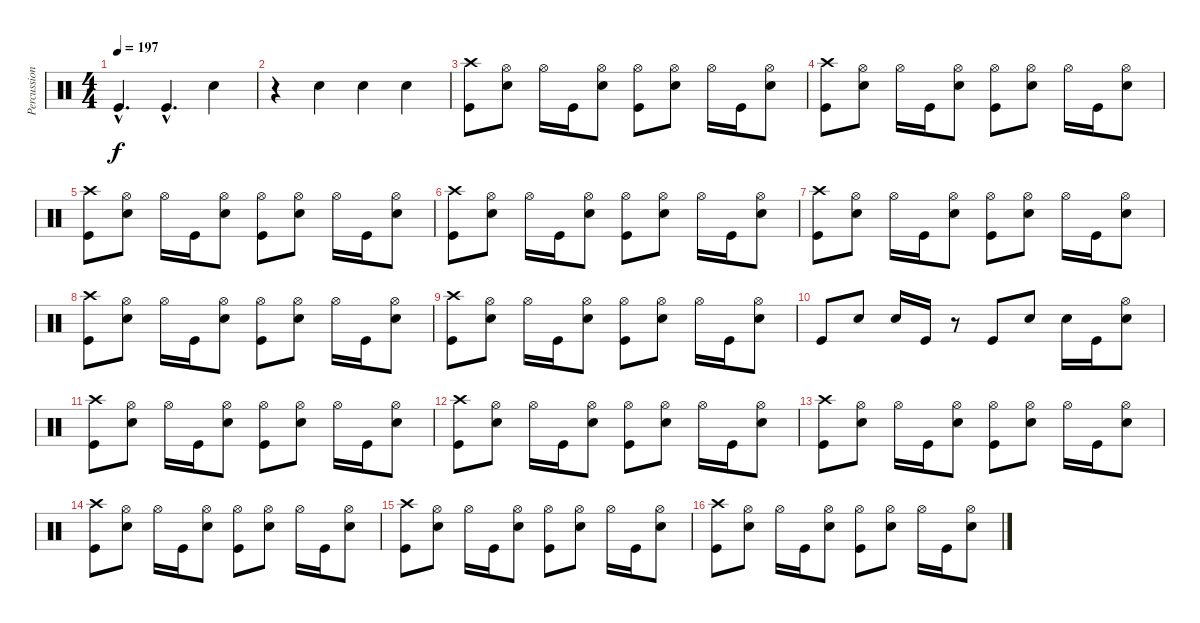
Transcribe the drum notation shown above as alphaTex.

\track ("Percussion" "Percussion") {instrument percussion}
\staff {score}
\articulation defaults
\ts (4 4)
\tempo 197
\clef neutral
\ks c "Kick (hit)"{hac}.4{d dy f} "Kick (hit)"{hac}.4{d} "Snare (hit) 2".4
|
r.4 "Snare (hit) 2".4 "Snare (hit) 2".4 "Snare (hit) 2".4 |
("Crash high (hit)" "Kick (hit)").8 ("Hi-Hat (open)" "Snare (hit) 2").8 "Hi-Hat (open)".16 "Kick (hit)".16 ("Hi-Hat (open)" "Snare (hit) 2").8 ("Hi-Hat (open)" "Kick (hit)").8 ("Hi-Hat (open)" "Snare (hit) 2").8 "Hi-Hat (open)".16 "Kick (hit)".16 ("Hi-Hat (open)" "Snare (hit) 2").8 |
("Crash high (hit)" "Kick (hit)").8 ("Hi-Hat (open)" "Snare (hit) 2").8 "Hi-Hat (open)".16 "Kick (hit)".16 ("Hi-Hat (open)" "Snare (hit) 2").8 ("Hi-Hat (open)" "Kick (hit)").8 ("Hi-Hat (open)" "Snare (hit) 2").8 "Hi-Hat (open)".16 "Kick (hit)".16 ("Hi-Hat (open)" "Snare (hit) 2").8 |
("Crash high (hit)" "Kick (hit)").8 ("Hi-Hat (open)" "Snare (hit) 2").8 "Hi-Hat (open)".16 "Kick (hit)".16 ("Hi-Hat (open)" "Snare (hit) 2").8 ("Hi-Hat (open)" "Kick (hit)").8 ("Hi-Hat (open)" "Snare (hit) 2").8 "Hi-Hat (open)".16 "Kick (hit)".16 ("Hi-Hat (open)" "Snare (hit) 2").8 |
("Crash high (hit)" "Kick (hit)").8 ("Hi-Hat (open)" "Snare (hit) 2").8 "Hi-Hat (open)".16 "Kick (hit)".16 ("Hi-Hat (open)" "Snare (hit) 2").8 ("Hi-Hat (open)" "Kick (hit)").8 ("Hi-Hat (open)" "Snare (hit) 2").8 "Hi-Hat (open)".16 "Kick (hit)".16 ("Hi-Hat (open)" "Snare (hit) 2").8 |
("Crash high (hit)" "Kick (hit)").8 ("Hi-Hat (open)" "Snare (hit) 2").8 "Hi-Hat (open)".16 "Kick (hit)".16 ("Hi-Hat (open)" "Snare (hit) 2").8 ("Hi-Hat (open)" "Kick (hit)").8 ("Hi-Hat (open)" "Snare (hit) 2").8 "Hi-Hat (open)".16 "Kick (hit)".16 ("Hi-Hat (open)" "Snare (hit) 2").8 |
("Crash high (hit)" "Kick (hit)").8 ("Hi-Hat (open)" "Snare (hit) 2").8 "Hi-Hat (open)".16 "Kick (hit)".16 ("Hi-Hat (open)" "Snare (hit) 2").8 ("Hi-Hat (open)" "Kick (hit)").8 ("Hi-Hat (open)" "Snare (hit) 2").8 "Hi-Hat (open)".16 "Kick (hit)".16 ("Hi-Hat (open)" "Snare (hit) 2").8 |
("Crash high (hit)" "Kick (hit)").8 ("Hi-Hat (open)" "Snare (hit) 2").8 "Hi-Hat (open)".16 "Kick (hit)".16 ("Hi-Hat (open)" "Snare (hit) 2").8 ("Hi-Hat (open)" "Kick (hit)").8 ("Hi-Hat (open)" "Snare (hit) 2").8 "Hi-Hat (open)".16 "Kick (hit)".16 ("Hi-Hat (open)" "Snare (hit) 2").8 |
"Kick (hit)".8 "Snare (hit) 2".8 "Snare (hit) 2".16 "Kick (hit)".16 r.8 "Kick (hit)".8 "Snare (hit) 2".8 "Snare (hit) 2".16 "Kick (hit)".16 ("Hi-Hat (open)" "Snare (hit) 2").8 |
("Crash high (hit)" "Kick (hit)").8 ("Hi-Hat (open)" "Snare (hit) 2").8 "Hi-Hat (open)".16 "Kick (hit)".16 ("Hi-Hat (open)" "Snare (hit) 2").8 ("Hi-Hat (open)" "Kick (hit)").8 ("Hi-Hat (open)" "Snare (hit) 2").8 "Hi-Hat (open)".16 "Kick (hit)".16 ("Hi-Hat (open)" "Snare (hit) 2").8 |
("Crash high (hit)" "Kick (hit)").8 ("Hi-Hat (open)" "Snare (hit) 2").8 "Hi-Hat (open)".16 "Kick (hit)".16 ("Hi-Hat (open)" "Snare (hit) 2").8 ("Hi-Hat (open)" "Kick (hit)").8 ("Hi-Hat (open)" "Snare (hit) 2").8 "Hi-Hat (open)".16 "Kick (hit)".16 ("Hi-Hat (open)" "Snare (hit) 2").8 |
("Crash high (hit)" "Kick (hit)").8 ("Hi-Hat (open)" "Snare (hit) 2").8 "Hi-Hat (open)".16 "Kick (hit)".16 ("Hi-Hat (open)" "Snare (hit) 2").8 ("Hi-Hat (open)" "Kick (hit)").8 ("Hi-Hat (open)" "Snare (hit) 2").8 "Hi-Hat (open)".16 "Kick (hit)".16 ("Hi-Hat (open)" "Snare (hit) 2").8 |
("Crash high (hit)" "Kick (hit)").8 ("Hi-Hat (open)" "Snare (hit) 2").8 "Hi-Hat (open)".16 "Kick (hit)".16 ("Hi-Hat (open)" "Snare (hit) 2").8 ("Hi-Hat (open)" "Kick (hit)").8 ("Hi-Hat (open)" "Snare (hit) 2").8 "Hi-Hat (open)".16 "Kick (hit)".16 ("Hi-Hat (open)" "Snare (hit) 2").8 |
("Crash high (hit)" "Kick (hit)").8 ("Hi-Hat (open)" "Snare (hit) 2").8 "Hi-Hat (open)".16 "Kick (hit)".16 ("Hi-Hat (open)" "Snare (hit) 2").8 ("Hi-Hat (open)" "Kick (hit)").8 ("Hi-Hat (open)" "Snare (hit) 2").8 "Hi-Hat (open)".16 "Kick (hit)".16 ("Hi-Hat (open)" "Snare (hit) 2").8 |
("Crash high (hit)" "Kick (hit)").8 ("Hi-Hat (open)" "Snare (hit) 2").8 "Hi-Hat (open)".16 "Kick (hit)".16 ("Hi-Hat (open)" "Snare (hit) 2").8 ("Hi-Hat (open)" "Kick (hit)").8 ("Hi-Hat (open)" "Snare (hit) 2").8 "Hi-Hat (open)".16 "Kick (hit)".16 ("Hi-Hat (open)" "Snare (hit) 2").8
